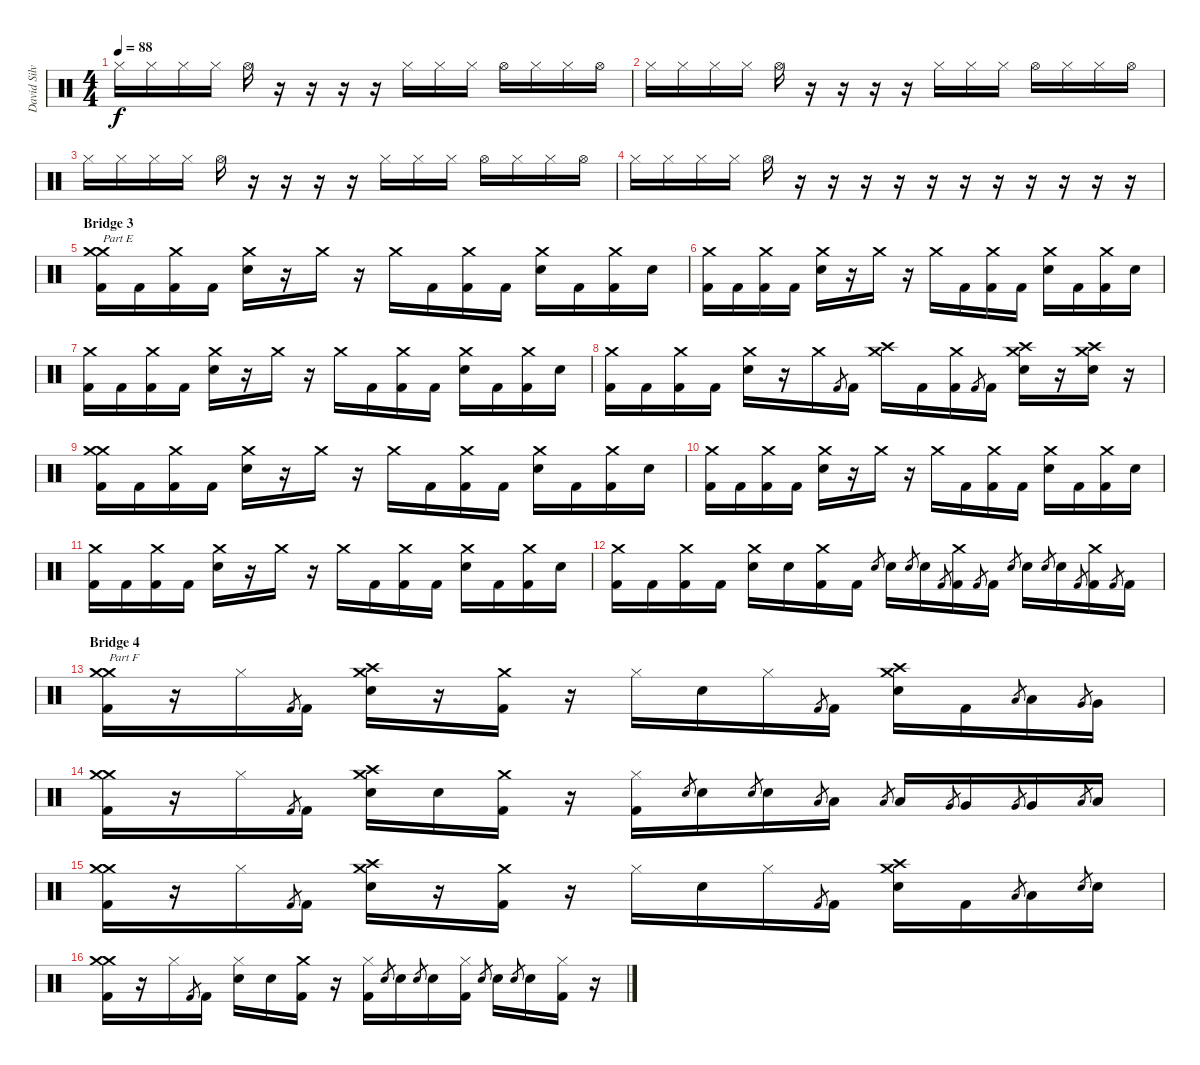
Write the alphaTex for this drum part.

\track ("David Silveria" "David Silv") {instrument percussion}
\staff {score}
\articulation defaults
\ts (4 4)
\tempo 88
\clef neutral
\ks c "Hi-Hat (closed)".16{dy f} "Hi-Hat (closed)".16 "Hi-Hat (closed)".16 "Hi-Hat (closed)".16 "Hi-Hat (open)".16
r.16 r.16 r.16 r.16 "Hi-Hat (closed)".16 "Hi-Hat (closed)".16 "Hi-Hat (closed)".16 "Hi-Hat (open)".16 "Hi-Hat (closed)".16 "Hi-Hat (closed)".16 "Hi-Hat (open)".16 |
"Hi-Hat (closed)".16 "Hi-Hat (closed)".16 "Hi-Hat (closed)".16 "Hi-Hat (closed)".16 "Hi-Hat (open)".16 r.16 r.16 r.16 r.16 "Hi-Hat (closed)".16 "Hi-Hat (closed)".16 "Hi-Hat (closed)".16 "Hi-Hat (open)".16 "Hi-Hat (closed)".16 "Hi-Hat (closed)".16 "Hi-Hat (open)".16 |
"Hi-Hat (closed)".16 "Hi-Hat (closed)".16 "Hi-Hat (closed)".16 "Hi-Hat (closed)".16 "Hi-Hat (open)".16 r.16 r.16 r.16 r.16 "Hi-Hat (closed)".16 "Hi-Hat (closed)".16 "Hi-Hat (closed)".16 "Hi-Hat (open)".16 "Hi-Hat (closed)".16 "Hi-Hat (closed)".16 "Hi-Hat (open)".16 |
"Hi-Hat (closed)".16 "Hi-Hat (closed)".16 "Hi-Hat (closed)".16 "Hi-Hat (closed)".16 "Hi-Hat (open)".16 r.16 r.16 r.16 r.16 r.16 r.16 r.16 r.16 r.16 r.16 r.16 |
\section ("" "Bridge 3")
("Crash medium (hit)" "Crash medium (hit)" "Kick (hit) 2").16{txt "Part E"} "Kick (hit) 2".16 ("Crash medium (hit)" "Kick (hit) 2").16 "Kick (hit) 2".16 ("Crash medium (hit)" "Snare (hit) 2").16 r.16 "Crash medium (hit)".16 r.16 "Crash medium (hit)".16 "Kick (hit) 2".16 ("Crash medium (hit)" "Kick (hit) 2").16 "Kick (hit) 2".16 ("Crash medium (hit)" "Snare (hit) 2").16 "Kick (hit) 2".16 ("Crash medium (hit)" "Kick (hit) 2").16 "Snare (hit) 2".16 |
("Crash medium (hit)" "Kick (hit) 2").16 "Kick (hit) 2".16 ("Crash medium (hit)" "Kick (hit) 2").16 "Kick (hit) 2".16 ("Crash medium (hit)" "Snare (hit) 2").16 r.16 "Crash medium (hit)".16 r.16 "Crash medium (hit)".16 "Kick (hit) 2".16 ("Crash medium (hit)" "Kick (hit) 2").16 "Kick (hit) 2".16 ("Crash medium (hit)" "Snare (hit) 2").16 "Kick (hit) 2".16 ("Crash medium (hit)" "Kick (hit) 2").16 "Snare (hit) 2".16 |
("Crash medium (hit)" "Kick (hit) 2").16 "Kick (hit) 2".16 ("Crash medium (hit)" "Kick (hit) 2").16 "Kick (hit) 2".16 ("Crash medium (hit)" "Snare (hit) 2").16 r.16 "Crash medium (hit)".16 r.16 "Crash medium (hit)".16 "Kick (hit) 2".16 ("Crash medium (hit)" "Kick (hit) 2").16 "Kick (hit) 2".16 ("Crash medium (hit)" "Snare (hit) 2").16 "Kick (hit) 2".16 ("Crash medium (hit)" "Kick (hit) 2").16 "Snare (hit) 2".16 |
("Crash medium (hit)" "Kick (hit) 2").16 "Kick (hit) 2".16 ("Crash medium (hit)" "Kick (hit) 2").16 "Kick (hit) 2".16 ("Crash medium (hit)" "Snare (hit) 2").16 r.16 "Crash medium (hit)".16 "Kick (hit) 2".8{gr} "Kick (hit) 2".16 ("Crash medium (hit)" "Crash high (hit)").16 "Kick (hit) 2".16 ("Crash medium (hit)" "Kick (hit) 2").16 "Kick (hit) 2".8{gr} "Kick (hit) 2".16 ("Crash medium (hit)" "Crash high (hit)" "Snare (hit) 2").16 r.16 ("Crash medium (hit)" "Crash high (hit)" "Snare (hit) 2").16 r.16 |
("Crash medium (hit)" "Crash medium (hit)" "Kick (hit) 2").16 "Kick (hit) 2".16 ("Crash medium (hit)" "Kick (hit) 2").16 "Kick (hit) 2".16 ("Crash medium (hit)" "Snare (hit) 2").16 r.16 "Crash medium (hit)".16 r.16 "Crash medium (hit)".16 "Kick (hit) 2".16 ("Crash medium (hit)" "Kick (hit) 2").16 "Kick (hit) 2".16 ("Crash medium (hit)" "Snare (hit) 2").16 "Kick (hit) 2".16 ("Crash medium (hit)" "Kick (hit) 2").16 "Snare (hit) 2".16 |
("Crash medium (hit)" "Kick (hit) 2").16 "Kick (hit) 2".16 ("Crash medium (hit)" "Kick (hit) 2").16 "Kick (hit) 2".16 ("Crash medium (hit)" "Snare (hit) 2").16 r.16 "Crash medium (hit)".16 r.16 "Crash medium (hit)".16 "Kick (hit) 2".16 ("Crash medium (hit)" "Kick (hit) 2").16 "Kick (hit) 2".16 ("Crash medium (hit)" "Snare (hit) 2").16 "Kick (hit) 2".16 ("Crash medium (hit)" "Kick (hit) 2").16 "Snare (hit) 2".16 |
("Crash medium (hit)" "Kick (hit) 2").16 "Kick (hit) 2".16 ("Crash medium (hit)" "Kick (hit) 2").16 "Kick (hit) 2".16 ("Crash medium (hit)" "Snare (hit) 2").16 r.16 "Crash medium (hit)".16 r.16 "Crash medium (hit)".16 "Kick (hit) 2".16 ("Crash medium (hit)" "Kick (hit) 2").16 "Kick (hit) 2".16 ("Crash medium (hit)" "Snare (hit) 2").16 "Kick (hit) 2".16 ("Crash medium (hit)" "Kick (hit) 2").16 "Snare (hit) 2".16 |
("Crash medium (hit)" "Kick (hit) 2").16 "Kick (hit) 2".16 ("Crash medium (hit)" "Kick (hit) 2").16 "Kick (hit) 2".16 ("Crash medium (hit)" "Snare (hit) 2").16 "Snare (hit) 2".16 ("Crash medium (hit)" "Kick (hit) 2").16 "Kick (hit) 2".16 "Snare (hit) 2".8{gr} "Snare (hit) 2".16 "Snare (hit) 2".8{gr} "Snare (hit) 2".16 "Kick (hit) 2".8{gr} ("Crash medium (hit)" "Kick (hit) 2").16 "Kick (hit) 2".8{gr} "Kick (hit) 2".16 "Snare (hit) 2".8{gr} "Snare (hit) 2".16 "Snare (hit) 2".8{gr} "Snare (hit) 2".16 "Kick (hit) 2".8{gr} ("Crash medium (hit)" "Kick (hit) 2").16 "Kick (hit) 2".8{gr} "Kick (hit) 2".16 |
\section ("" "Bridge 4")
("Crash medium (hit)" "Crash medium (hit)" "Kick (hit) 2").16{txt "Part F"} r.16 "Hi-Hat (closed)".16 "Kick (hit) 2".8{gr} "Kick (hit) 2".16 ("Crash medium (hit)" "Crash high (hit)" "Snare (hit) 2").16 r.16 ("Crash medium (hit)" "Kick (hit) 2").16 r.16 "Hi-Hat (closed)".16 "Snare (hit) 2".16 "Hi-Hat (closed)".16 "Kick (hit) 2".8{gr} "Kick (hit) 2".16 ("Crash medium (hit)" "Crash high (hit)" "Snare (hit) 2").16 "Kick (hit) 2".16 "Low Tom (hit)".8{gr} "Low Tom (hit)".16 "Very Low Tom (hit)".8{gr} "Very Low Tom (hit)".16 |
("Crash medium (hit)" "Crash medium (hit)" "Kick (hit) 2").16 r.16 "Hi-Hat (closed)".16 "Kick (hit) 2".8{gr} "Kick (hit) 2".16 ("Crash medium (hit)" "Crash high (hit)" "Snare (hit) 2").16 "Snare (hit) 2".16 ("Crash medium (hit)" "Kick (hit) 2").16 r.16 ("Hi-Hat (closed)" "Kick (hit) 2").16 "Snare (hit) 2".8{gr} "Snare (hit) 2".16 "Snare (hit) 2".8{gr} "Snare (hit) 2".16 "Low Tom (hit)".8{gr} "Low Tom (hit)".16 "Low Tom (hit)".8{gr} "Low Tom (hit)".16 "Very Low Tom (hit)".8{gr} "Very Low Tom (hit)".16 "Very Low Tom (hit)".8{gr} "Very Low Tom (hit)".16 "Low Floor Tom (hit)".8{gr} "Low Floor Tom (hit)".16 |
("Crash medium (hit)" "Crash medium (hit)" "Kick (hit) 2").16 r.16 "Hi-Hat (closed)".16 "Kick (hit) 2".8{gr} "Kick (hit) 2".16 ("Crash medium (hit)" "Crash high (hit)" "Snare (hit) 2").16 r.16 ("Crash medium (hit)" "Kick (hit) 2").16 r.16 "Hi-Hat (closed)".16 "Snare (hit) 2".16 "Hi-Hat (closed)".16 "Kick (hit) 2".8{gr} "Kick (hit) 2".16 ("Crash medium (hit)" "Crash high (hit)" "Snare (hit) 2").16 "Kick (hit) 2".16 "Low Tom (hit)".8{gr} "Low Tom (hit)".16 "Snare (hit) 2".8{gr} "Snare (hit) 2".16 |
("Crash medium (hit)" "Crash medium (hit)" "Kick (hit) 2").16 r.16 "Hi-Hat (closed)".16 "Kick (hit) 2".8{gr} "Kick (hit) 2".16 ("Hi-Hat (closed)" "Snare (hit) 2").16 "Snare (hit) 2".16 ("Crash medium (hit)" "Kick (hit) 2").16 r.16 ("Hi-Hat (closed)" "Kick (hit) 2").16 "Snare (hit) 2".8{gr} "Snare (hit) 2".16 "Snare (hit) 2".8{gr} "Snare (hit) 2".16 ("Hi-Hat (closed)" "Kick (hit) 2").16 "Snare (hit) 2".8{gr} "Snare (hit) 2".16 "Snare (hit) 2".8{gr} "Snare (hit) 2".16 ("Hi-Hat (closed)" "Kick (hit) 2").16 r.16
